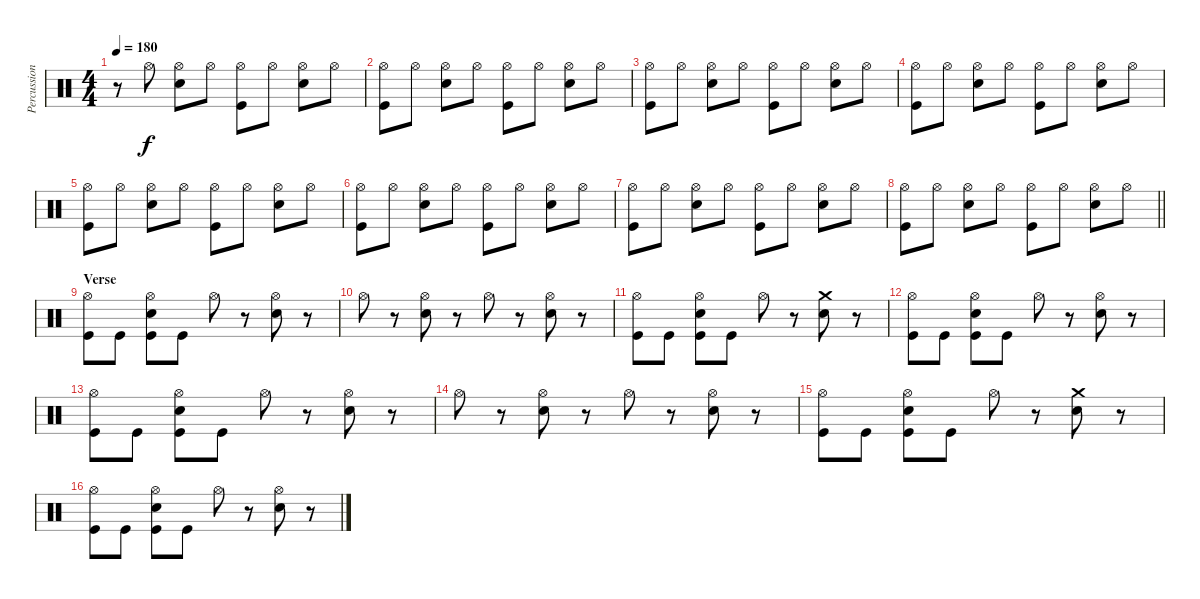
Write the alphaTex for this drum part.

\track ("Percussion" "Percussion") {instrument percussion}
\staff {score}
\articulation defaults
\ts (4 4)
\tempo 180
\clef neutral
\ks c
r.8{dy f} "Hi-Hat (open)".8 ("Hi-Hat (open)" "Snare (hit) 2").8 "Hi-Hat (open)".8 ("Hi-Hat (open)" "Kick (hit)").8 "Hi-Hat (open)".8 ("Hi-Hat (open)" "Snare (hit) 2").8 "Hi-Hat (open)".8 |
("Hi-Hat (open)" "Kick (hit)").8 "Hi-Hat (open)".8 ("Hi-Hat (open)" "Snare (hit) 2").8 "Hi-Hat (open)".8 ("Hi-Hat (open)" "Kick (hit)").8 "Hi-Hat (open)".8 ("Hi-Hat (open)" "Snare (hit) 2").8 "Hi-Hat (open)".8 |
("Hi-Hat (open)" "Kick (hit)").8 "Hi-Hat (open)".8 ("Hi-Hat (open)" "Snare (hit) 2").8 "Hi-Hat (open)".8 ("Hi-Hat (open)" "Kick (hit)").8 "Hi-Hat (open)".8 ("Hi-Hat (open)" "Snare (hit) 2").8 "Hi-Hat (open)".8 |
("Hi-Hat (open)" "Kick (hit)").8 "Hi-Hat (open)".8 ("Hi-Hat (open)" "Snare (hit) 2").8 "Hi-Hat (open)".8 ("Hi-Hat (open)" "Kick (hit)").8 "Hi-Hat (open)".8 ("Hi-Hat (open)" "Snare (hit) 2").8 "Hi-Hat (open)".8 |
("Hi-Hat (open)" "Kick (hit)").8 "Hi-Hat (open)".8 ("Hi-Hat (open)" "Snare (hit) 2").8 "Hi-Hat (open)".8 ("Hi-Hat (open)" "Kick (hit)").8 "Hi-Hat (open)".8 ("Hi-Hat (open)" "Snare (hit) 2").8 "Hi-Hat (open)".8 |
("Hi-Hat (open)" "Kick (hit)").8 "Hi-Hat (open)".8 ("Hi-Hat (open)" "Snare (hit) 2").8 "Hi-Hat (open)".8 ("Hi-Hat (open)" "Kick (hit)").8 "Hi-Hat (open)".8 ("Hi-Hat (open)" "Snare (hit) 2").8 "Hi-Hat (open)".8 |
("Hi-Hat (open)" "Kick (hit)").8 "Hi-Hat (open)".8 ("Hi-Hat (open)" "Snare (hit) 2").8 "Hi-Hat (open)".8 ("Hi-Hat (open)" "Kick (hit)").8 "Hi-Hat (open)".8 ("Hi-Hat (open)" "Snare (hit) 2").8 "Hi-Hat (open)".8 |
\barLineRight lightlight
("Hi-Hat (open)" "Kick (hit)").8 "Hi-Hat (open)".8 ("Hi-Hat (open)" "Snare (hit) 2").8 "Hi-Hat (open)".8 ("Hi-Hat (open)" "Kick (hit)").8 "Hi-Hat (open)".8 ("Hi-Hat (open)" "Snare (hit) 2").8 "Hi-Hat (open)".8 |
\section ("" "Verse")
("Hi-Hat (open)" "Kick (hit)").8 "Kick (hit)".8 ("Hi-Hat (open)" "Snare (hit) 2" "Kick (hit)").8 "Kick (hit)".8 "Hi-Hat (open)".8 r.8 ("Hi-Hat (open)" "Snare (hit) 2").8 r.8 |
"Hi-Hat (open)".8 r.8 ("Hi-Hat (open)" "Snare (hit) 2").8 r.8 "Hi-Hat (open)".8 r.8 ("Hi-Hat (open)" "Snare (hit) 2").8 r.8 |
("Hi-Hat (open)" "Kick (hit)").8 "Kick (hit)".8 ("Hi-Hat (open)" "Snare (hit) 2" "Kick (hit)").8 "Kick (hit)".8 "Hi-Hat (open)".8 r.8 ("Crash medium (hit)" "Snare (hit) 2").8 r.8 |
("Hi-Hat (open)" "Kick (hit)").8 "Kick (hit)".8 ("Hi-Hat (open)" "Snare (hit) 2" "Kick (hit)").8 "Kick (hit)".8 "Hi-Hat (open)".8 r.8 ("Hi-Hat (open)" "Snare (hit) 2").8 r.8 |
("Hi-Hat (open)" "Kick (hit)").8 "Kick (hit)".8 ("Hi-Hat (open)" "Snare (hit) 2" "Kick (hit)").8 "Kick (hit)".8 "Hi-Hat (open)".8 r.8 ("Hi-Hat (open)" "Snare (hit) 2").8 r.8 |
"Hi-Hat (open)".8 r.8 ("Hi-Hat (open)" "Snare (hit) 2").8 r.8 "Hi-Hat (open)".8 r.8 ("Hi-Hat (open)" "Snare (hit) 2").8 r.8 |
("Hi-Hat (open)" "Kick (hit)").8 "Kick (hit)".8 ("Hi-Hat (open)" "Snare (hit) 2" "Kick (hit)").8 "Kick (hit)".8 "Hi-Hat (open)".8 r.8 ("Crash medium (hit)" "Snare (hit) 2").8 r.8 |
("Hi-Hat (open)" "Kick (hit)").8 "Kick (hit)".8 ("Hi-Hat (open)" "Snare (hit) 2" "Kick (hit)").8 "Kick (hit)".8 "Hi-Hat (open)".8 r.8 ("Hi-Hat (open)" "Snare (hit) 2").8 r.8
